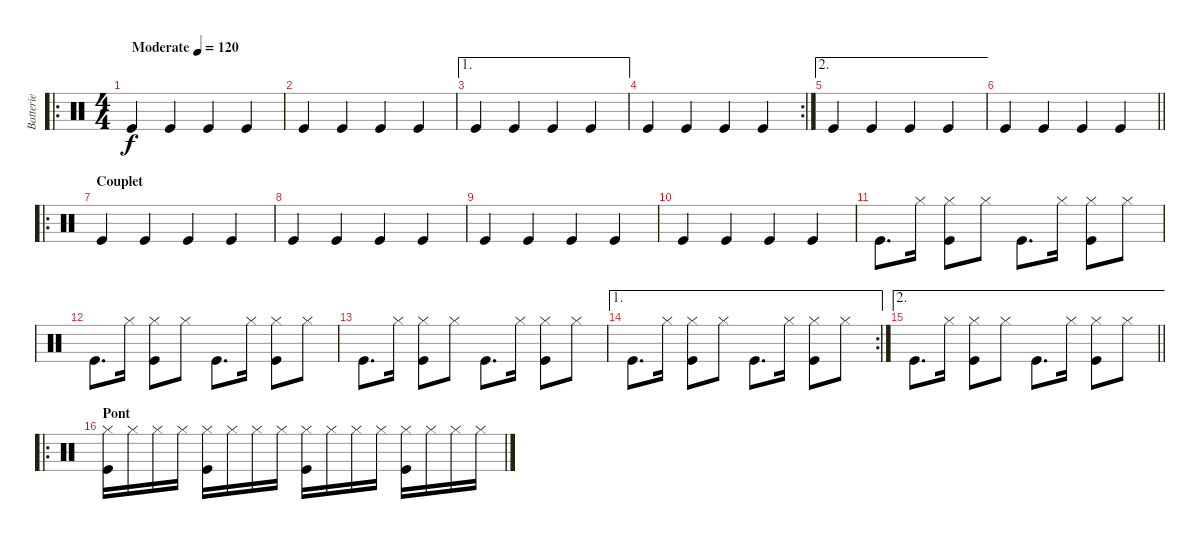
\track ("Batterie" "Batterie") {instrument percussion}
\staff {score}
\articulation defaults
\ro
\ts (4 4)
\tempo (120 "Moderate")
\clef neutral
\ks c "Kick (hit)".4{dy f} "Kick (hit)".4 "Kick (hit)".4 "Kick (hit)".4
|
"Kick (hit)".4 "Kick (hit)".4 "Kick (hit)".4 "Kick (hit)".4 |
\ae 1 "Kick (hit)".4 "Kick (hit)".4 "Kick (hit)".4 "Kick (hit)".4
|
\rc 2 "Kick (hit)".4 "Kick (hit)".4 "Kick (hit)".4 "Kick (hit)".4
|
\ae 2 "Kick (hit)".4 "Kick (hit)".4 "Kick (hit)".4 "Kick (hit)".4
|
\barLineRight lightlight "Kick (hit)".4 "Kick (hit)".4 "Kick (hit)".4 "Kick (hit)".4
|
\ro
\section ("" "Couplet")
"Kick (hit)".4 "Kick (hit)".4 "Kick (hit)".4 "Kick (hit)".4 |
"Kick (hit)".4 "Kick (hit)".4 "Kick (hit)".4 "Kick (hit)".4 |
"Kick (hit)".4 "Kick (hit)".4 "Kick (hit)".4 "Kick (hit)".4 |
"Kick (hit)".4 "Kick (hit)".4 "Kick (hit)".4 "Kick (hit)".4 |
"Kick (hit)".8{d} "Hi-Hat (closed)".16 ("Kick (hit)" "Hi-Hat (closed)").8 "Hi-Hat (closed)".8 "Kick (hit)".8{d} "Hi-Hat (closed)".16 ("Kick (hit)" "Hi-Hat (closed)").8 "Hi-Hat (closed)".8 |
"Kick (hit)".8{d} "Hi-Hat (closed)".16 ("Kick (hit)" "Hi-Hat (closed)").8 "Hi-Hat (closed)".8 "Kick (hit)".8{d} "Hi-Hat (closed)".16 ("Kick (hit)" "Hi-Hat (closed)").8 "Hi-Hat (closed)".8 |
"Kick (hit)".8{d} "Hi-Hat (closed)".16 ("Kick (hit)" "Hi-Hat (closed)").8 "Hi-Hat (closed)".8 "Kick (hit)".8{d} "Hi-Hat (closed)".16 ("Kick (hit)" "Hi-Hat (closed)").8 "Hi-Hat (closed)".8 |
\ae 1
\rc 2 "Kick (hit)".8{d} "Hi-Hat (closed)".16
("Kick (hit)" "Hi-Hat (closed)").8 "Hi-Hat (closed)".8 "Kick (hit)".8{d} "Hi-Hat (closed)".16 ("Kick (hit)" "Hi-Hat (closed)").8 "Hi-Hat (closed)".8 |
\ae 2
\barLineRight lightlight "Kick (hit)".8{d} "Hi-Hat (closed)".16
("Kick (hit)" "Hi-Hat (closed)").8 "Hi-Hat (closed)".8 "Kick (hit)".8{d} "Hi-Hat (closed)".16 ("Kick (hit)" "Hi-Hat (closed)").8 "Hi-Hat (closed)".8 |
\ro
\section ("" "Pont")
("Kick (hit)" "Hi-Hat (closed)").16 "Hi-Hat (closed)".16 "Hi-Hat (closed)".16 "Hi-Hat (closed)".16 ("Kick (hit)" "Hi-Hat (closed)").16 "Hi-Hat (closed)".16 "Hi-Hat (closed)".16 "Hi-Hat (closed)".16 ("Kick (hit)" "Hi-Hat (closed)").16 "Hi-Hat (closed)".16 "Hi-Hat (closed)".16 "Hi-Hat (closed)".16 ("Kick (hit)" "Hi-Hat (closed)").16 "Hi-Hat (closed)".16 "Hi-Hat (closed)".16 "Hi-Hat (closed)".16
